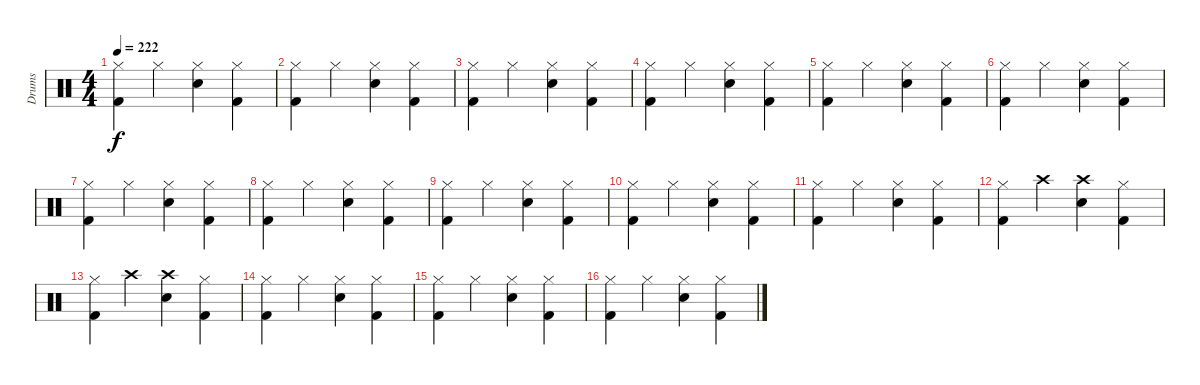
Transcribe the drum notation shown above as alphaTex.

\track ("Drums" "Drums") {instrument percussion}
\staff {score}
\articulation defaults
\ts (4 4)
\tempo 222
\clef neutral
\ks c
("Hi-Hat (closed)" "Kick (hit) 2").4{dy f} "Hi-Hat (closed)".4 ("Hi-Hat (closed)" "Electric Snare (hit)").4 ("Hi-Hat (closed)" "Kick (hit) 2").4 |
("Hi-Hat (closed)" "Kick (hit) 2").4 "Hi-Hat (closed)".4 ("Hi-Hat (closed)" "Electric Snare (hit)").4 ("Hi-Hat (closed)" "Kick (hit) 2").4 |
("Hi-Hat (closed)" "Kick (hit) 2").4 "Hi-Hat (closed)".4 ("Hi-Hat (closed)" "Electric Snare (hit)").4 ("Hi-Hat (closed)" "Kick (hit) 2").4 |
("Hi-Hat (closed)" "Kick (hit) 2").4 "Hi-Hat (closed)".4 ("Hi-Hat (closed)" "Electric Snare (hit)").4 ("Hi-Hat (closed)" "Kick (hit) 2").4 |
("Hi-Hat (closed)" "Kick (hit) 2").4 "Hi-Hat (closed)".4 ("Hi-Hat (closed)" "Electric Snare (hit)").4 ("Hi-Hat (closed)" "Kick (hit) 2").4 |
("Hi-Hat (closed)" "Kick (hit) 2").4 "Hi-Hat (closed)".4 ("Hi-Hat (closed)" "Electric Snare (hit)").4 ("Hi-Hat (closed)" "Kick (hit) 2").4 |
("Hi-Hat (closed)" "Kick (hit) 2").4 "Hi-Hat (closed)".4 ("Hi-Hat (closed)" "Electric Snare (hit)").4 ("Hi-Hat (closed)" "Kick (hit) 2").4 |
("Hi-Hat (closed)" "Kick (hit) 2").4 "Hi-Hat (closed)".4 ("Hi-Hat (closed)" "Electric Snare (hit)").4 ("Hi-Hat (closed)" "Kick (hit) 2").4 |
("Hi-Hat (closed)" "Kick (hit) 2").4 "Hi-Hat (closed)".4 ("Hi-Hat (closed)" "Electric Snare (hit)").4 ("Hi-Hat (closed)" "Kick (hit) 2").4 |
("Hi-Hat (closed)" "Kick (hit) 2").4 "Hi-Hat (closed)".4 ("Hi-Hat (closed)" "Electric Snare (hit)").4 ("Hi-Hat (closed)" "Kick (hit) 2").4 |
("Hi-Hat (closed)" "Kick (hit) 2").4 "Hi-Hat (closed)".4 ("Hi-Hat (closed)" "Electric Snare (hit)").4 ("Hi-Hat (closed)" "Kick (hit) 2").4 |
("Hi-Hat (closed)" "Kick (hit) 2").4 "Crash high (hit)".4 ("Crash high (hit)" "Electric Snare (hit)").4 ("Hi-Hat (closed)" "Kick (hit) 2").4 |
("Hi-Hat (closed)" "Kick (hit) 2").4 "Crash high (hit)".4 ("Crash high (hit)" "Electric Snare (hit)").4 ("Hi-Hat (closed)" "Kick (hit) 2").4 |
("Hi-Hat (closed)" "Kick (hit) 2").4 "Hi-Hat (closed)".4 ("Hi-Hat (closed)" "Electric Snare (hit)").4 ("Hi-Hat (closed)" "Kick (hit) 2").4 |
("Hi-Hat (closed)" "Kick (hit) 2").4 "Hi-Hat (closed)".4 ("Hi-Hat (closed)" "Electric Snare (hit)").4 ("Hi-Hat (closed)" "Kick (hit) 2").4 |
("Hi-Hat (closed)" "Kick (hit) 2").4 "Hi-Hat (closed)".4 ("Hi-Hat (closed)" "Electric Snare (hit)").4 ("Hi-Hat (closed)" "Kick (hit) 2").4
